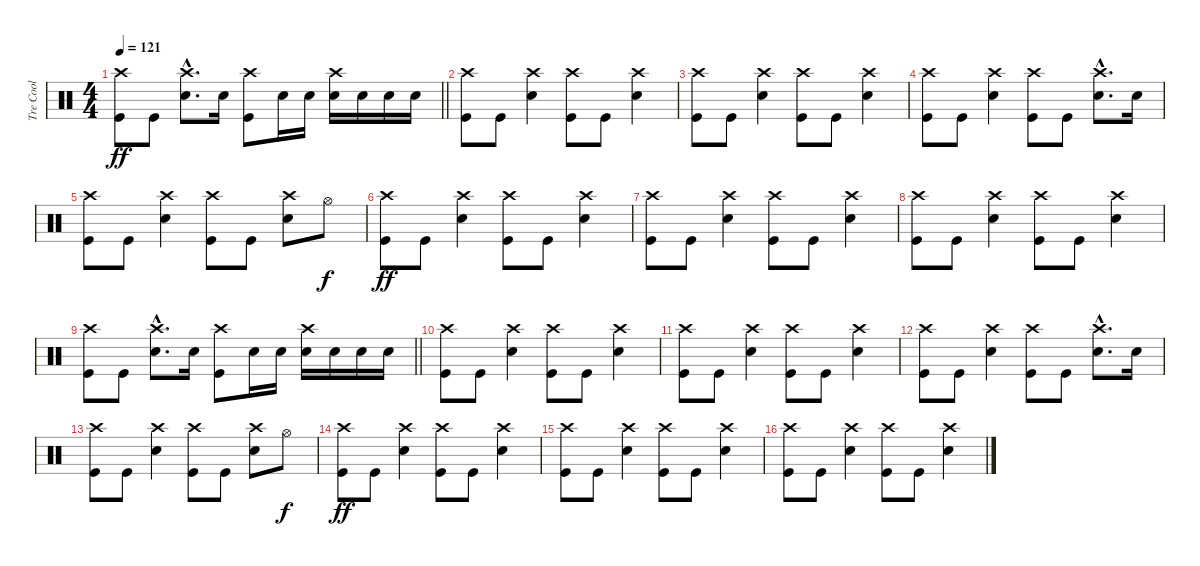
\track ("Tre Cool" "Tre Cool") {instrument percussion}
\staff {score}
\articulation defaults
\ts (4 4)
\tempo 121
\clef neutral
\barLineRight lightlight
\ks c
("Crash high (hit)" "Kick (hit)").8{dy ff} "Kick (hit)".8 ("Crash high (hit)"{hac} "Snare (hit) 2"{hac}).8{d} "Snare (hit) 2".16 ("Crash high (hit)" "Kick (hit)").8 "Snare (hit) 2".16 "Snare (hit) 2".16 ("Crash high (hit)" "Snare (hit) 2").16 "Snare (hit) 2".16 "Snare (hit) 2".16 "Snare (hit) 2".16 |
("Crash high (hit)" "Kick (hit)").8 "Kick (hit)".8 ("Crash high (hit)" "Snare (hit) 2").4 ("Crash high (hit)" "Kick (hit)").8 "Kick (hit)".8 ("Crash high (hit)" "Snare (hit) 2").4 |
("Crash high (hit)" "Kick (hit)").8 "Kick (hit)".8 ("Crash high (hit)" "Snare (hit) 2").4 ("Crash high (hit)" "Kick (hit)").8 "Kick (hit)".8 ("Crash high (hit)" "Snare (hit) 2").4 |
("Crash high (hit)" "Kick (hit)").8 "Kick (hit)".8 ("Crash high (hit)" "Snare (hit) 2").4 ("Crash high (hit)" "Kick (hit)").8 "Kick (hit)".8 ("Crash high (hit)"{hac} "Snare (hit) 2"{hac}).8{d} "Snare (hit) 2".16 |
("Crash high (hit)" "Kick (hit)").8 "Kick (hit)".8 ("Crash high (hit)" "Snare (hit) 2").4 ("Crash high (hit)" "Kick (hit)").8 "Kick (hit)".8 ("Crash high (hit)" "Snare (hit) 2").8 "Hi-Hat (open)".8{dy f} |
("Crash high (hit)" "Kick (hit)").8{dy ff} "Kick (hit)".8 ("Crash high (hit)" "Snare (hit) 2").4 ("Crash high (hit)" "Kick (hit)").8 "Kick (hit)".8 ("Crash high (hit)" "Snare (hit) 2").4 |
("Crash high (hit)" "Kick (hit)").8 "Kick (hit)".8 ("Crash high (hit)" "Snare (hit) 2").4 ("Crash high (hit)" "Kick (hit)").8 "Kick (hit)".8 ("Crash high (hit)" "Snare (hit) 2").4 |
("Crash high (hit)" "Kick (hit)").8 "Kick (hit)".8 ("Crash high (hit)" "Snare (hit) 2").4 ("Crash high (hit)" "Kick (hit)").8 "Kick (hit)".8 ("Crash high (hit)" "Snare (hit) 2").4 |
\barLineRight lightlight
("Crash high (hit)" "Kick (hit)").8 "Kick (hit)".8 ("Crash high (hit)"{hac} "Snare (hit) 2"{hac}).8{d} "Snare (hit) 2".16 ("Crash high (hit)" "Kick (hit)").8 "Snare (hit) 2".16 "Snare (hit) 2".16 ("Crash high (hit)" "Snare (hit) 2").16 "Snare (hit) 2".16 "Snare (hit) 2".16 "Snare (hit) 2".16 |
("Crash high (hit)" "Kick (hit)").8 "Kick (hit)".8 ("Crash high (hit)" "Snare (hit) 2").4 ("Crash high (hit)" "Kick (hit)").8 "Kick (hit)".8 ("Crash high (hit)" "Snare (hit) 2").4 |
("Crash high (hit)" "Kick (hit)").8 "Kick (hit)".8 ("Crash high (hit)" "Snare (hit) 2").4 ("Crash high (hit)" "Kick (hit)").8 "Kick (hit)".8 ("Crash high (hit)" "Snare (hit) 2").4 |
("Crash high (hit)" "Kick (hit)").8 "Kick (hit)".8 ("Crash high (hit)" "Snare (hit) 2").4 ("Crash high (hit)" "Kick (hit)").8 "Kick (hit)".8 ("Crash high (hit)"{hac} "Snare (hit) 2"{hac}).8{d} "Snare (hit) 2".16 |
("Crash high (hit)" "Kick (hit)").8 "Kick (hit)".8 ("Crash high (hit)" "Snare (hit) 2").4 ("Crash high (hit)" "Kick (hit)").8 "Kick (hit)".8 ("Crash high (hit)" "Snare (hit) 2").8 "Hi-Hat (open)".8{dy f} |
("Crash high (hit)" "Kick (hit)").8{dy ff} "Kick (hit)".8 ("Crash high (hit)" "Snare (hit) 2").4 ("Crash high (hit)" "Kick (hit)").8 "Kick (hit)".8 ("Crash high (hit)" "Snare (hit) 2").4 |
("Crash high (hit)" "Kick (hit)").8 "Kick (hit)".8 ("Crash high (hit)" "Snare (hit) 2").4 ("Crash high (hit)" "Kick (hit)").8 "Kick (hit)".8 ("Crash high (hit)" "Snare (hit) 2").4 |
("Crash high (hit)" "Kick (hit)").8 "Kick (hit)".8 ("Crash high (hit)" "Snare (hit) 2").4 ("Crash high (hit)" "Kick (hit)").8 "Kick (hit)".8 ("Crash high (hit)" "Snare (hit) 2").4
